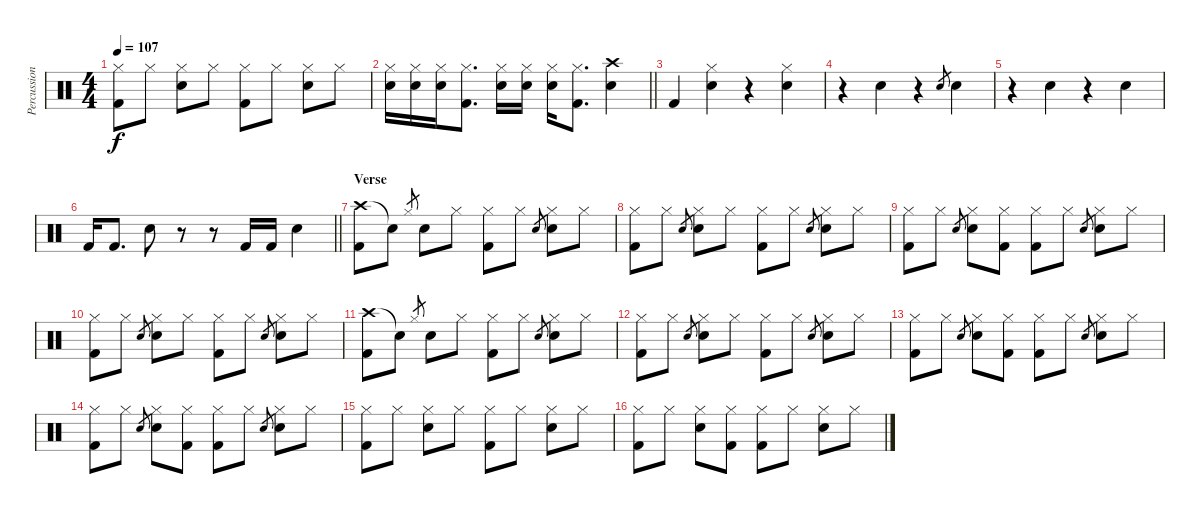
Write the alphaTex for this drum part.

\track ("Percussion" "Percussion") {instrument percussion}
\staff {score}
\articulation defaults
\ts (4 4)
\tempo 107
\clef neutral
\ks c
("Hi-Hat (closed)" "Kick (hit) 2").8{dy f} "Hi-Hat (closed)".8 ("Hi-Hat (closed)" "Electric Snare (hit)").8 "Hi-Hat (closed)".8 ("Hi-Hat (closed)" "Kick (hit) 2").8 "Hi-Hat (closed)".8 ("Hi-Hat (closed)" "Electric Snare (hit)").8 "Hi-Hat (closed)".8 |
\barLineRight lightlight
("Hi-Hat (closed)" "Electric Snare (hit)").16 ("Hi-Hat (closed)" "Electric Snare (hit)").16 ("Hi-Hat (closed)" "Electric Snare (hit)").16 ("Hi-Hat (closed)" "Kick (hit) 2").8{d} ("Hi-Hat (closed)" "Electric Snare (hit)").16 ("Hi-Hat (closed)" "Electric Snare (hit)").16 ("Hi-Hat (closed)" "Electric Snare (hit)").16 ("Hi-Hat (closed)" "Kick (hit) 2").8{d} ("Crash high (hit)" "Electric Snare (hit)").4 |
"Kick (hit) 2".4 ("Hi-Hat (closed)" "Electric Snare (hit)").4 r.4 ("Hi-Hat (closed)" "Electric Snare (hit)").4 |
r.4 "Electric Snare (hit)".4 r.4 "Electric Snare (hit)".8{gr} "Electric Snare (hit)".4 |
r.4 "Electric Snare (hit)".4 r.4 "Electric Snare (hit)".4 |
\barLineRight lightlight "Kick (hit) 2".16 "Kick (hit) 2".8{d} "Electric Snare (hit)".8
r.8 r.8 "Kick (hit) 2".16 "Kick (hit) 2".16 "Electric Snare (hit)".4 |
\section ("" "Verse")
("Crash high (hit)" "Kick (hit) 2").8 "Snare (hit)"{t}.8 "Hi-Hat (closed)".8{gr} "Electric Snare (hit)".8 "Hi-Hat (closed)".8 ("Hi-Hat (closed)" "Kick (hit) 2").8 "Hi-Hat (closed)".8 "Electric Snare (hit)".8{gr} ("Hi-Hat (closed)" "Electric Snare (hit)").8 "Hi-Hat (closed)".8 |
("Hi-Hat (closed)" "Kick (hit) 2").8 "Hi-Hat (closed)".8 "Electric Snare (hit)".8{gr} ("Hi-Hat (closed)" "Electric Snare (hit)").8 "Hi-Hat (closed)".8 ("Hi-Hat (closed)" "Kick (hit) 2").8 "Hi-Hat (closed)".8 "Electric Snare (hit)".8{gr} ("Hi-Hat (closed)" "Electric Snare (hit)").8 "Hi-Hat (closed)".8 |
("Hi-Hat (closed)" "Kick (hit) 2").8 "Hi-Hat (closed)".8 "Electric Snare (hit)".8{gr} ("Hi-Hat (closed)" "Electric Snare (hit)").8 ("Hi-Hat (closed)" "Kick (hit) 2").8 ("Hi-Hat (closed)" "Kick (hit) 2").8 "Hi-Hat (closed)".8 "Electric Snare (hit)".8{gr} ("Hi-Hat (closed)" "Electric Snare (hit)").8 "Hi-Hat (closed)".8 |
("Hi-Hat (closed)" "Kick (hit) 2").8 "Hi-Hat (closed)".8 "Electric Snare (hit)".8{gr} ("Hi-Hat (closed)" "Electric Snare (hit)").8 "Hi-Hat (closed)".8 ("Hi-Hat (closed)" "Kick (hit) 2").8 "Hi-Hat (closed)".8 "Electric Snare (hit)".8{gr} ("Hi-Hat (closed)" "Electric Snare (hit)").8 "Hi-Hat (closed)".8 |
("Crash high (hit)" "Kick (hit) 2").8 "Snare (hit)"{t}.8 "Hi-Hat (closed)".8{gr} "Electric Snare (hit)".8 "Hi-Hat (closed)".8 ("Hi-Hat (closed)" "Kick (hit) 2").8 "Hi-Hat (closed)".8 "Electric Snare (hit)".8{gr} ("Hi-Hat (closed)" "Electric Snare (hit)").8 "Hi-Hat (closed)".8 |
("Hi-Hat (closed)" "Kick (hit) 2").8 "Hi-Hat (closed)".8 "Electric Snare (hit)".8{gr} ("Hi-Hat (closed)" "Electric Snare (hit)").8 "Hi-Hat (closed)".8 ("Hi-Hat (closed)" "Kick (hit) 2").8 "Hi-Hat (closed)".8 "Electric Snare (hit)".8{gr} ("Hi-Hat (closed)" "Electric Snare (hit)").8 "Hi-Hat (closed)".8 |
("Hi-Hat (closed)" "Kick (hit) 2").8 "Hi-Hat (closed)".8 "Electric Snare (hit)".8{gr} ("Hi-Hat (closed)" "Electric Snare (hit)").8 ("Hi-Hat (closed)" "Kick (hit) 2").8 ("Hi-Hat (closed)" "Kick (hit) 2").8 "Hi-Hat (closed)".8 "Electric Snare (hit)".8{gr} ("Hi-Hat (closed)" "Electric Snare (hit)").8 "Hi-Hat (closed)".8 |
("Hi-Hat (closed)" "Kick (hit) 2").8 "Hi-Hat (closed)".8 "Electric Snare (hit)".8{gr} ("Hi-Hat (closed)" "Electric Snare (hit)").8 ("Hi-Hat (closed)" "Kick (hit) 2").8 ("Hi-Hat (closed)" "Kick (hit) 2").8 "Hi-Hat (closed)".8 "Electric Snare (hit)".8{gr} ("Hi-Hat (closed)" "Electric Snare (hit)").8 "Hi-Hat (closed)".8 |
("Hi-Hat (closed)" "Kick (hit) 2").8 "Hi-Hat (closed)".8 ("Hi-Hat (closed)" "Electric Snare (hit)").8 "Hi-Hat (closed)".8 ("Hi-Hat (closed)" "Kick (hit) 2").8 "Hi-Hat (closed)".8 ("Hi-Hat (closed)" "Electric Snare (hit)").8 "Hi-Hat (closed)".8 |
("Hi-Hat (closed)" "Kick (hit) 2").8 "Hi-Hat (closed)".8 ("Hi-Hat (closed)" "Electric Snare (hit)").8 ("Hi-Hat (closed)" "Kick (hit) 2").8 ("Hi-Hat (closed)" "Kick (hit) 2").8 "Hi-Hat (closed)".8 ("Hi-Hat (closed)" "Electric Snare (hit)").8 "Hi-Hat (closed)".8
